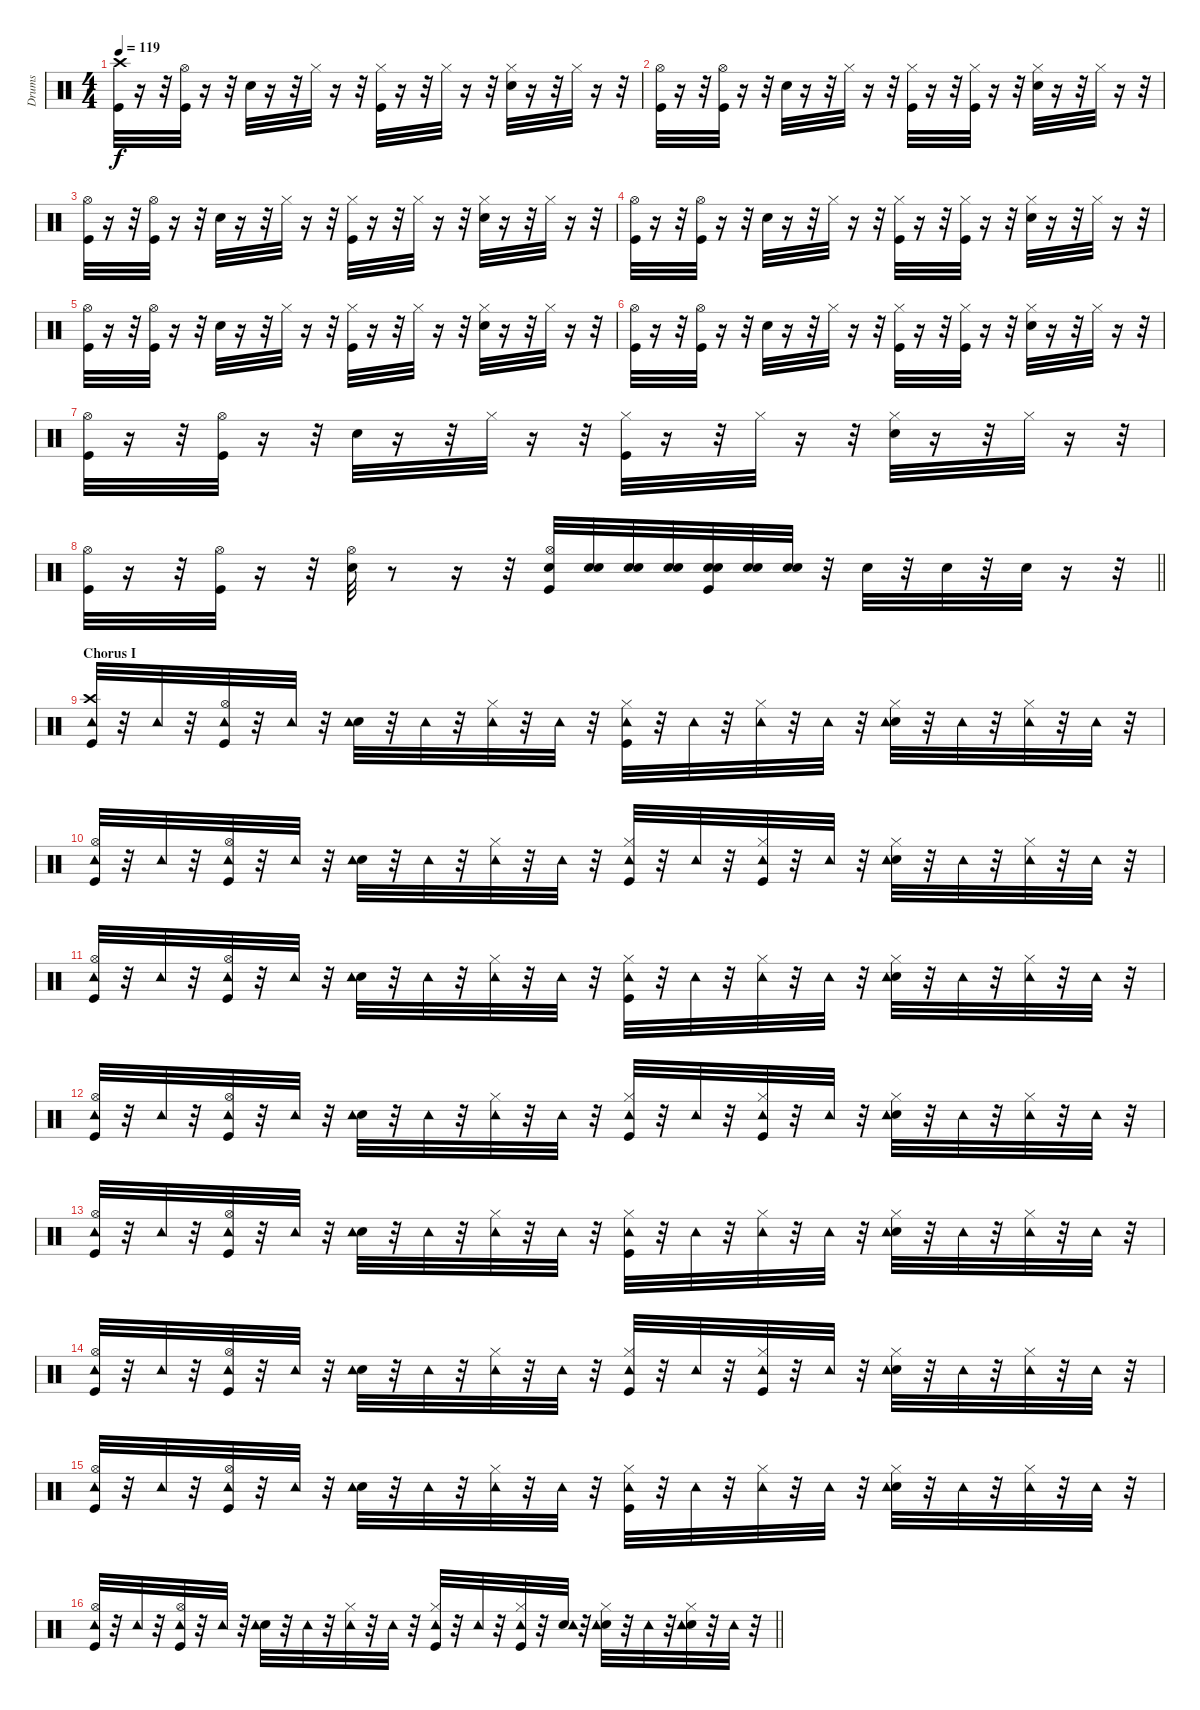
\track ("Drums" "Drums") {instrument percussion}
\staff {score}
\articulation defaults
\ts (4 4)
\tempo 119
\clef neutral
\ks c
("Kick (hit)" "Crash high (hit)").32{dy f} r.16 r.32 ("Kick (hit)" "Hi-Hat (open)").32 r.16 r.32 "Electric Snare (hit)".32 r.16 r.32 "Hi-Hat (closed)".32 r.16 r.32 ("Kick (hit)" "Hi-Hat (closed)").32 r.16 r.32 "Hi-Hat (closed)".32 r.16 r.32 ("Electric Snare (hit)" "Hi-Hat (closed)").32 r.16 r.32 "Hi-Hat (closed)".32 r.16 r.32 |
("Kick (hit)" "Hi-Hat (open)").32 r.16 r.32 ("Kick (hit)" "Hi-Hat (open)").32 r.16 r.32 "Electric Snare (hit)".32 r.16 r.32 "Hi-Hat (closed)".32 r.16 r.32 ("Kick (hit)" "Hi-Hat (closed)").32 r.16 r.32 ("Kick (hit)" "Hi-Hat (closed)").32 r.16 r.32 ("Electric Snare (hit)" "Hi-Hat (closed)").32 r.16 r.32 "Hi-Hat (closed)".32 r.16 r.32 |
("Kick (hit)" "Hi-Hat (open)").32 r.16 r.32 ("Kick (hit)" "Hi-Hat (open)").32 r.16 r.32 "Electric Snare (hit)".32 r.16 r.32 "Hi-Hat (closed)".32 r.16 r.32 ("Kick (hit)" "Hi-Hat (closed)").32 r.16 r.32 "Hi-Hat (closed)".32 r.16 r.32 ("Electric Snare (hit)" "Hi-Hat (closed)").32 r.16 r.32 "Hi-Hat (closed)".32 r.16 r.32 |
("Kick (hit)" "Hi-Hat (open)").32 r.16 r.32 ("Kick (hit)" "Hi-Hat (open)").32 r.16 r.32 "Electric Snare (hit)".32 r.16 r.32 "Hi-Hat (closed)".32 r.16 r.32 ("Kick (hit)" "Hi-Hat (closed)").32 r.16 r.32 ("Kick (hit)" "Hi-Hat (closed)").32 r.16 r.32 ("Electric Snare (hit)" "Hi-Hat (closed)").32 r.16 r.32 "Hi-Hat (closed)".32 r.16 r.32 |
("Kick (hit)" "Hi-Hat (open)").32 r.16 r.32 ("Kick (hit)" "Hi-Hat (open)").32 r.16 r.32 "Electric Snare (hit)".32 r.16 r.32 "Hi-Hat (closed)".32 r.16 r.32 ("Kick (hit)" "Hi-Hat (closed)").32 r.16 r.32 "Hi-Hat (closed)".32 r.16 r.32 ("Electric Snare (hit)" "Hi-Hat (closed)").32 r.16 r.32 "Hi-Hat (closed)".32 r.16 r.32 |
("Kick (hit)" "Hi-Hat (open)").32 r.16 r.32 ("Kick (hit)" "Hi-Hat (open)").32 r.16 r.32 "Electric Snare (hit)".32 r.16 r.32 "Hi-Hat (closed)".32 r.16 r.32 ("Kick (hit)" "Hi-Hat (closed)").32 r.16 r.32 ("Kick (hit)" "Hi-Hat (closed)").32 r.16 r.32 ("Electric Snare (hit)" "Hi-Hat (closed)").32 r.16 r.32 "Hi-Hat (closed)".32 r.16 r.32 |
("Kick (hit)" "Hi-Hat (open)").32 r.16 r.32 ("Kick (hit)" "Hi-Hat (open)").32 r.16 r.32 "Electric Snare (hit)".32 r.16 r.32 "Hi-Hat (closed)".32 r.16 r.32 ("Kick (hit)" "Hi-Hat (closed)").32 r.16 r.32 "Hi-Hat (closed)".32 r.16 r.32 ("Electric Snare (hit)" "Hi-Hat (closed)").32 r.16 r.32 "Hi-Hat (closed)".32 r.16 r.32 |
\barLineRight lightlight
("Kick (hit)" "Hi-Hat (open)").32 r.16 r.32 ("Kick (hit)" "Hi-Hat (open)").32 r.16 r.32 ("Electric Snare (hit)" "Hi-Hat (open)").32 r.8 r.16 r.32 ("Kick (hit)" "Electric Snare (hit)" "Hi-Hat (open)").32 ("Snare (hit)" "Electric Snare (hit)").32 ("Snare (hit)" "Electric Snare (hit)").32 ("Snare (hit)" "Electric Snare (hit)").32 ("Snare (hit)" "Kick (hit)" "Electric Snare (hit)").32 ("Snare (hit)" "Electric Snare (hit)").32 ("Snare (hit)" "Electric Snare (hit)").32 r.32 "Electric Snare (hit)".32 r.32 "Electric Snare (hit)".32 r.32 "Electric Snare (hit)".32 r.16 r.32 |
\section ("" "Chorus I")
("Kick (hit)" "Crash high (hit)" "Tambourine (hit)").32 r.32 "Tambourine (hit)".32 r.32 ("Kick (hit)" "Hi-Hat (open)" "Tambourine (hit)").32 r.32 "Tambourine (hit)".32 r.32 ("Electric Snare (hit)" "Tambourine (hit)").32 r.32 "Tambourine (hit)".32 r.32 ("Hi-Hat (closed)" "Tambourine (hit)").32 r.32 "Tambourine (hit)".32 r.32 ("Kick (hit)" "Hi-Hat (closed)" "Tambourine (hit)").32 r.32 "Tambourine (hit)".32 r.32 ("Hi-Hat (closed)" "Tambourine (hit)").32 r.32 "Tambourine (hit)".32 r.32 ("Electric Snare (hit)" "Hi-Hat (closed)" "Tambourine (hit)").32 r.32 "Tambourine (hit)".32 r.32 ("Hi-Hat (closed)" "Tambourine (hit)").32 r.32 "Tambourine (hit)".32 r.32 |
("Kick (hit)" "Hi-Hat (open)" "Tambourine (hit)").32 r.32 "Tambourine (hit)".32 r.32 ("Kick (hit)" "Hi-Hat (open)" "Tambourine (hit)").32 r.32 "Tambourine (hit)".32 r.32 ("Electric Snare (hit)" "Tambourine (hit)").32 r.32 "Tambourine (hit)".32 r.32 ("Hi-Hat (closed)" "Tambourine (hit)").32 r.32 "Tambourine (hit)".32 r.32 ("Kick (hit)" "Hi-Hat (closed)" "Tambourine (hit)").32 r.32 "Tambourine (hit)".32 r.32 ("Kick (hit)" "Hi-Hat (closed)" "Tambourine (hit)").32 r.32 "Tambourine (hit)".32 r.32 ("Electric Snare (hit)" "Hi-Hat (closed)" "Tambourine (hit)").32 r.32 "Tambourine (hit)".32 r.32 ("Hi-Hat (closed)" "Tambourine (hit)").32 r.32 "Tambourine (hit)".32 r.32 |
("Kick (hit)" "Hi-Hat (open)" "Tambourine (hit)").32 r.32 "Tambourine (hit)".32 r.32 ("Kick (hit)" "Hi-Hat (open)" "Tambourine (hit)").32 r.32 "Tambourine (hit)".32 r.32 ("Electric Snare (hit)" "Tambourine (hit)").32 r.32 "Tambourine (hit)".32 r.32 ("Hi-Hat (closed)" "Tambourine (hit)").32 r.32 "Tambourine (hit)".32 r.32 ("Kick (hit)" "Hi-Hat (closed)" "Tambourine (hit)").32 r.32 "Tambourine (hit)".32 r.32 ("Hi-Hat (closed)" "Tambourine (hit)").32 r.32 "Tambourine (hit)".32 r.32 ("Electric Snare (hit)" "Hi-Hat (closed)" "Tambourine (hit)").32 r.32 "Tambourine (hit)".32 r.32 ("Hi-Hat (closed)" "Tambourine (hit)").32 r.32 "Tambourine (hit)".32 r.32 |
("Kick (hit)" "Hi-Hat (open)" "Tambourine (hit)").32 r.32 "Tambourine (hit)".32 r.32 ("Kick (hit)" "Hi-Hat (open)" "Tambourine (hit)").32 r.32 "Tambourine (hit)".32 r.32 ("Electric Snare (hit)" "Tambourine (hit)").32 r.32 "Tambourine (hit)".32 r.32 ("Hi-Hat (closed)" "Tambourine (hit)").32 r.32 "Tambourine (hit)".32 r.32 ("Kick (hit)" "Hi-Hat (closed)" "Tambourine (hit)").32 r.32 "Tambourine (hit)".32 r.32 ("Kick (hit)" "Hi-Hat (closed)" "Tambourine (hit)").32 r.32 "Tambourine (hit)".32 r.32 ("Electric Snare (hit)" "Hi-Hat (closed)" "Tambourine (hit)").32 r.32 "Tambourine (hit)".32 r.32 ("Hi-Hat (closed)" "Tambourine (hit)").32 r.32 "Tambourine (hit)".32 r.32 |
("Kick (hit)" "Hi-Hat (open)" "Tambourine (hit)").32 r.32 "Tambourine (hit)".32 r.32 ("Kick (hit)" "Hi-Hat (open)" "Tambourine (hit)").32 r.32 "Tambourine (hit)".32 r.32 ("Electric Snare (hit)" "Tambourine (hit)").32 r.32 "Tambourine (hit)".32 r.32 ("Hi-Hat (closed)" "Tambourine (hit)").32 r.32 "Tambourine (hit)".32 r.32 ("Kick (hit)" "Hi-Hat (closed)" "Tambourine (hit)").32 r.32 "Tambourine (hit)".32 r.32 ("Hi-Hat (closed)" "Tambourine (hit)").32 r.32 "Tambourine (hit)".32 r.32 ("Electric Snare (hit)" "Hi-Hat (closed)" "Tambourine (hit)").32 r.32 "Tambourine (hit)".32 r.32 ("Hi-Hat (closed)" "Tambourine (hit)").32 r.32 "Tambourine (hit)".32 r.32 |
("Kick (hit)" "Hi-Hat (open)" "Tambourine (hit)").32 r.32 "Tambourine (hit)".32 r.32 ("Kick (hit)" "Hi-Hat (open)" "Tambourine (hit)").32 r.32 "Tambourine (hit)".32 r.32 ("Electric Snare (hit)" "Tambourine (hit)").32 r.32 "Tambourine (hit)".32 r.32 ("Hi-Hat (closed)" "Tambourine (hit)").32 r.32 "Tambourine (hit)".32 r.32 ("Kick (hit)" "Hi-Hat (closed)" "Tambourine (hit)").32 r.32 "Tambourine (hit)".32 r.32 ("Kick (hit)" "Hi-Hat (closed)" "Tambourine (hit)").32 r.32 "Tambourine (hit)".32 r.32 ("Electric Snare (hit)" "Hi-Hat (closed)" "Tambourine (hit)").32 r.32 "Tambourine (hit)".32 r.32 ("Hi-Hat (closed)" "Tambourine (hit)").32 r.32 "Tambourine (hit)".32 r.32 |
("Kick (hit)" "Hi-Hat (open)" "Tambourine (hit)").32 r.32 "Tambourine (hit)".32 r.32 ("Kick (hit)" "Hi-Hat (open)" "Tambourine (hit)").32 r.32 "Tambourine (hit)".32 r.32 ("Electric Snare (hit)" "Tambourine (hit)").32 r.32 "Tambourine (hit)".32 r.32 ("Hi-Hat (closed)" "Tambourine (hit)").32 r.32 "Tambourine (hit)".32 r.32 ("Kick (hit)" "Hi-Hat (closed)" "Tambourine (hit)").32 r.32 "Tambourine (hit)".32 r.32 ("Hi-Hat (closed)" "Tambourine (hit)").32 r.32 "Tambourine (hit)".32 r.32 ("Electric Snare (hit)" "Hi-Hat (closed)" "Tambourine (hit)").32 r.32 "Tambourine (hit)".32 r.32 ("Hi-Hat (closed)" "Tambourine (hit)").32 r.32 "Tambourine (hit)".32 r.32 |
\barLineRight lightlight
("Kick (hit)" "Hi-Hat (open)" "Tambourine (hit)").32 r.32 "Tambourine (hit)".32 r.32 ("Kick (hit)" "Hi-Hat (open)" "Tambourine (hit)").32 r.32 "Tambourine (hit)".32 r.32 ("Electric Snare (hit)" "Tambourine (hit)").32 r.32 "Tambourine (hit)".32 r.32 ("Hi-Hat (closed)" "Tambourine (hit)").32 r.32 "Tambourine (hit)".32 r.32 ("Kick (hit)" "Hi-Hat (closed)" "Tambourine (hit)").32 r.32 "Tambourine (hit)".32 r.32 ("Kick (hit)" "Hi-Hat (closed)" "Tambourine (hit)").32 r.32 ("Electric Snare (hit)" "Tambourine (hit)").32 r.32 ("Electric Snare (hit)" "Hi-Hat (closed)" "Tambourine (hit)").32 r.32 "Tambourine (hit)".32 r.32 ("Electric Snare (hit)" "Hi-Hat (closed)" "Tambourine (hit)").32 r.32 "Tambourine (hit)".32 r.32
